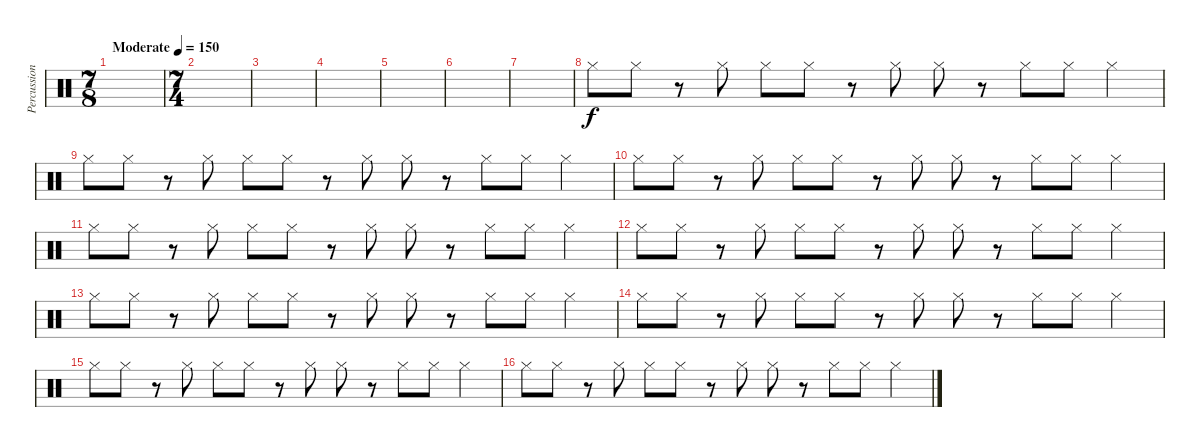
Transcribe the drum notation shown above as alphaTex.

\track ("Percussion" "Percussion") {instrument percussion}
\staff {score}
\articulation defaults
\ts (7 8)
\tempo (150 "Moderate")
\clef neutral
\ks c
|
\ts (7 4)
|
|
|
|
|
|
"Hi-Hat (closed)".8 "Hi-Hat (closed)".8 r.8 "Hi-Hat (closed)".8 "Hi-Hat (closed)".8 "Hi-Hat (closed)".8 r.8 "Hi-Hat (closed)".8 "Hi-Hat (closed)".8 r.8 "Hi-Hat (closed)".8 "Hi-Hat (closed)".8 "Hi-Hat (closed)".4 |
"Hi-Hat (closed)".8 "Hi-Hat (closed)".8 r.8 "Hi-Hat (closed)".8 "Hi-Hat (closed)".8 "Hi-Hat (closed)".8 r.8 "Hi-Hat (closed)".8 "Hi-Hat (closed)".8 r.8 "Hi-Hat (closed)".8 "Hi-Hat (closed)".8 "Hi-Hat (closed)".4 |
"Hi-Hat (closed)".8 "Hi-Hat (closed)".8 r.8 "Hi-Hat (closed)".8 "Hi-Hat (closed)".8 "Hi-Hat (closed)".8 r.8 "Hi-Hat (closed)".8 "Hi-Hat (closed)".8 r.8 "Hi-Hat (closed)".8 "Hi-Hat (closed)".8 "Hi-Hat (closed)".4 |
"Hi-Hat (closed)".8 "Hi-Hat (closed)".8 r.8 "Hi-Hat (closed)".8 "Hi-Hat (closed)".8 "Hi-Hat (closed)".8 r.8 "Hi-Hat (closed)".8 "Hi-Hat (closed)".8 r.8 "Hi-Hat (closed)".8 "Hi-Hat (closed)".8 "Hi-Hat (closed)".4 |
"Hi-Hat (closed)".8 "Hi-Hat (closed)".8 r.8 "Hi-Hat (closed)".8 "Hi-Hat (closed)".8 "Hi-Hat (closed)".8 r.8 "Hi-Hat (closed)".8 "Hi-Hat (closed)".8 r.8 "Hi-Hat (closed)".8 "Hi-Hat (closed)".8 "Hi-Hat (closed)".4 |
"Hi-Hat (closed)".8 "Hi-Hat (closed)".8 r.8 "Hi-Hat (closed)".8 "Hi-Hat (closed)".8 "Hi-Hat (closed)".8 r.8 "Hi-Hat (closed)".8 "Hi-Hat (closed)".8 r.8 "Hi-Hat (closed)".8 "Hi-Hat (closed)".8 "Hi-Hat (closed)".4 |
"Hi-Hat (closed)".8 "Hi-Hat (closed)".8 r.8 "Hi-Hat (closed)".8 "Hi-Hat (closed)".8 "Hi-Hat (closed)".8 r.8 "Hi-Hat (closed)".8 "Hi-Hat (closed)".8 r.8 "Hi-Hat (closed)".8 "Hi-Hat (closed)".8 "Hi-Hat (closed)".4 |
"Hi-Hat (closed)".8 "Hi-Hat (closed)".8 r.8 "Hi-Hat (closed)".8 "Hi-Hat (closed)".8 "Hi-Hat (closed)".8 r.8 "Hi-Hat (closed)".8 "Hi-Hat (closed)".8 r.8 "Hi-Hat (closed)".8 "Hi-Hat (closed)".8 "Hi-Hat (closed)".4 |
"Hi-Hat (closed)".8 "Hi-Hat (closed)".8 r.8 "Hi-Hat (closed)".8 "Hi-Hat (closed)".8 "Hi-Hat (closed)".8 r.8 "Hi-Hat (closed)".8 "Hi-Hat (closed)".8 r.8 "Hi-Hat (closed)".8 "Hi-Hat (closed)".8 "Hi-Hat (closed)".4
